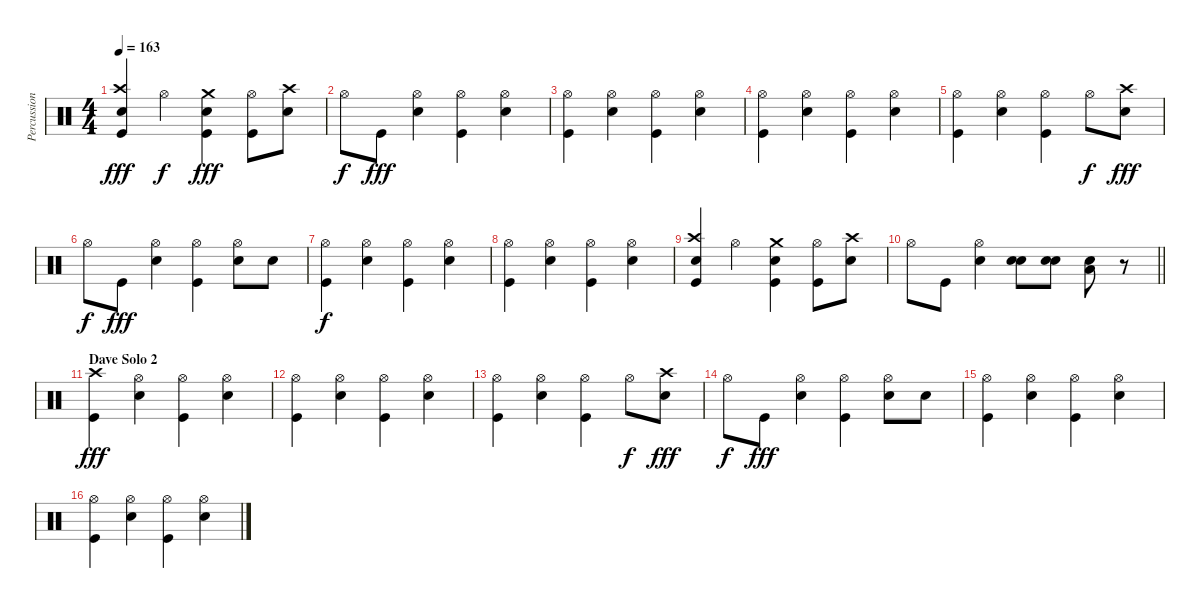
\track ("Percussion/Nicko McBrain" "Percussion") {instrument percussion}
\staff {score}
\articulation defaults
\ts (4 4)
\tempo 163
\clef neutral
\ks c
("Kick (hit)" "Crash high (hit)" "Electric Snare (hit)").4{dy fff} "Hi-Hat (open)".4{dy f} ("Kick (hit)" "Crash medium (hit)" "Electric Snare (hit)").4{dy fff} ("Hi-Hat (open)" "Kick (hit)").8 ("Electric Snare (hit)" "Crash high (hit)").8 |
"Hi-Hat (open)".8{dy f} "Kick (hit)".8{dy fff} ("Hi-Hat (open)" "Electric Snare (hit)").4 ("Hi-Hat (open)" "Kick (hit)").4 ("Hi-Hat (open)" "Electric Snare (hit)").4 |
("Hi-Hat (open)" "Kick (hit)").4 ("Hi-Hat (open)" "Electric Snare (hit)").4 ("Hi-Hat (open)" "Kick (hit)").4 ("Hi-Hat (open)" "Electric Snare (hit)").4 |
("Hi-Hat (open)" "Kick (hit)").4 ("Hi-Hat (open)" "Electric Snare (hit)").4 ("Hi-Hat (open)" "Kick (hit)").4 ("Hi-Hat (open)" "Electric Snare (hit)").4 |
("Hi-Hat (open)" "Kick (hit)").4 ("Hi-Hat (open)" "Electric Snare (hit)").4 ("Hi-Hat (open)" "Kick (hit)").4 "Hi-Hat (open)".8{dy f} ("Crash high (hit)" "Electric Snare (hit)").8{dy fff} |
"Hi-Hat (open)".8{dy f} "Kick (hit)".8{dy fff} ("Hi-Hat (open)" "Electric Snare (hit)").4 ("Hi-Hat (open)" "Kick (hit)").4 ("Hi-Hat (open)" "Electric Snare (hit)").8 "Electric Snare (hit)".8 |
("Hi-Hat (open)" "Kick (hit)").4{dy f} ("Hi-Hat (open)" "Electric Snare (hit)").4 ("Hi-Hat (open)" "Kick (hit)").4 ("Hi-Hat (open)" "Electric Snare (hit)").4 |
("Hi-Hat (open)" "Kick (hit)").4 ("Hi-Hat (open)" "Electric Snare (hit)").4 ("Hi-Hat (open)" "Kick (hit)").4 ("Hi-Hat (open)" "Electric Snare (hit)").4 |
("Kick (hit)" "Crash high (hit)" "Electric Snare (hit)").4 "Hi-Hat (open)".4 ("Kick (hit)" "Crash medium (hit)" "Electric Snare (hit)").4 ("Hi-Hat (open)" "Kick (hit)").8 ("Electric Snare (hit)" "Crash high (hit)").8 |
\barLineRight lightlight "Hi-Hat (open)".8 "Kick (hit)".8
("Hi-Hat (open)" "Electric Snare (hit)").4 ("Snare (hit) 2" "Electric Snare (hit)").8 ("Snare (hit) 2" "Electric Snare (hit)").8 ("Low Tom (hit)" "Electric Snare (hit)").8 r.8 |
\section ("" "Dave Solo 2")
("Crash high (hit)" "Kick (hit)").4{dy fff} ("Hi-Hat (open)" "Electric Snare (hit)").4 ("Hi-Hat (open)" "Kick (hit)").4 ("Hi-Hat (open)" "Electric Snare (hit)").4 |
("Hi-Hat (open)" "Kick (hit)").4 ("Hi-Hat (open)" "Electric Snare (hit)").4 ("Hi-Hat (open)" "Kick (hit)").4 ("Hi-Hat (open)" "Electric Snare (hit)").4 |
("Hi-Hat (open)" "Kick (hit)").4 ("Hi-Hat (open)" "Electric Snare (hit)").4 ("Hi-Hat (open)" "Kick (hit)").4 "Hi-Hat (open)".8{dy f} ("Crash high (hit)" "Electric Snare (hit)").8{dy fff} |
"Hi-Hat (open)".8{dy f} "Kick (hit)".8{dy fff} ("Hi-Hat (open)" "Electric Snare (hit)").4 ("Hi-Hat (open)" "Kick (hit)").4 ("Hi-Hat (open)" "Electric Snare (hit)").8 "Electric Snare (hit)".8 |
("Hi-Hat (open)" "Kick (hit)").4 ("Hi-Hat (open)" "Electric Snare (hit)").4 ("Hi-Hat (open)" "Kick (hit)").4 ("Hi-Hat (open)" "Electric Snare (hit)").4 |
("Hi-Hat (open)" "Kick (hit)").4 ("Hi-Hat (open)" "Electric Snare (hit)").4 ("Hi-Hat (open)" "Kick (hit)").4 ("Hi-Hat (open)" "Electric Snare (hit)").4
